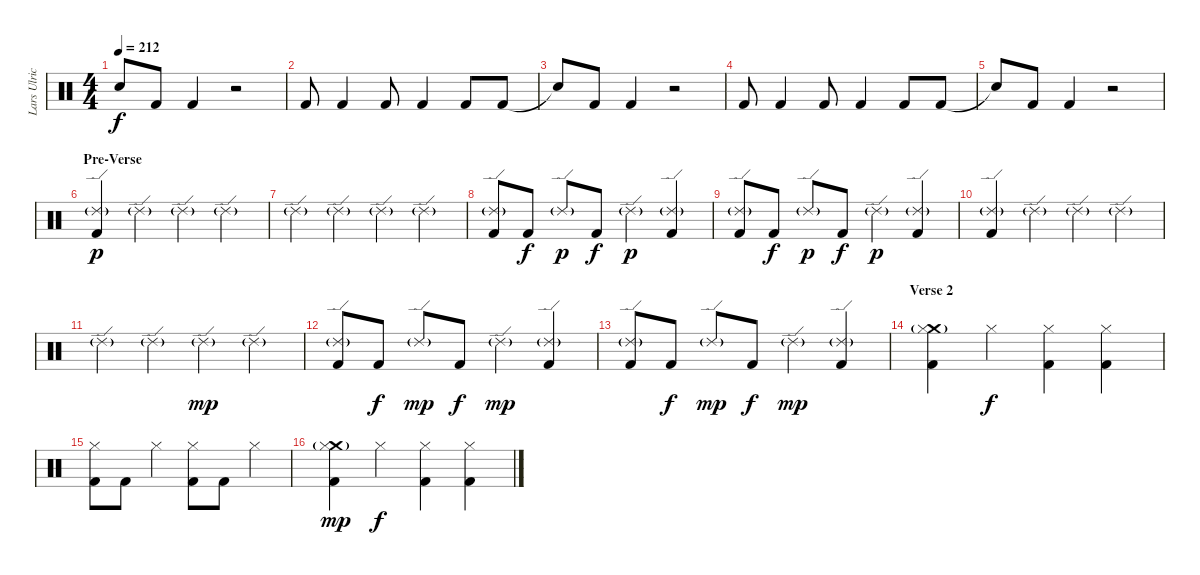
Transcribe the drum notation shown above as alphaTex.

\track ("Lars Ulrich" "Lars Ulric") {instrument percussion}
\staff {score}
\articulation defaults
\ts (4 4)
\tempo 212
\clef neutral
\ks c "Snare (hit)"{t}.8{dy f} "Kick (hit) 2".8 "Kick (hit) 2".4
r.2 |
"Kick (hit) 2".8 "Kick (hit) 2".4 "Kick (hit) 2".8 "Kick (hit) 2".4 "Kick (hit) 2".8 "Kick (hit) 2".8 |
"Snare (hit)"{t}.8 "Kick (hit) 2".8 "Kick (hit) 2".4 r.2 |
"Kick (hit) 2".8 "Kick (hit) 2".4 "Kick (hit) 2".8 "Kick (hit) 2".4 "Kick (hit) 2".8 "Kick (hit) 2".8 |
"Snare (hit)"{t}.8 "Kick (hit) 2".8 "Kick (hit) 2".4 r.2 |
\section ("" "Pre-Verse")
("Ride (edge) 2"{g} "Kick (hit) 2").4{dy p} "Ride (edge) 2"{g}.4 "Ride (edge) 2"{g}.4 "Ride (edge) 2"{g}.4 |
"Ride (edge) 2"{g}.4 "Ride (edge) 2"{g}.4 "Ride (edge) 2"{g}.4 "Ride (edge) 2"{g}.4 |
("Ride (edge) 2"{g} "Kick (hit) 2").8 "Kick (hit) 2".8{dy f} "Ride (edge) 2"{g}.8{dy p} "Kick (hit) 2".8{dy f} "Ride (edge) 2"{g}.4{dy p} ("Ride (edge) 2"{g} "Kick (hit) 2").4 |
("Ride (edge) 2"{g} "Kick (hit) 2").8 "Kick (hit) 2".8{dy f} "Ride (edge) 2"{g}.8{dy p} "Kick (hit) 2".8{dy f} "Ride (edge) 2"{g}.4{dy p} ("Ride (edge) 2"{g} "Kick (hit) 2").4 |
("Ride (edge) 2"{g} "Kick (hit) 2").4 "Ride (edge) 2"{g}.4 "Ride (edge) 2"{g}.4 "Ride (edge) 2"{g}.4 |
"Ride (edge) 2"{g}.4 "Ride (edge) 2"{g}.4 "Ride (edge) 2"{g}.4{dy mp} "Ride (edge) 2"{g}.4 |
("Ride (edge) 2"{g} "Kick (hit) 2").8 "Kick (hit) 2".8{dy f} "Ride (edge) 2"{g}.8{dy mp} "Kick (hit) 2".8{dy f} "Ride (edge) 2"{g}.4{dy mp} ("Ride (edge) 2"{g} "Kick (hit) 2").4 |
("Ride (edge) 2"{g} "Kick (hit) 2").8 "Kick (hit) 2".8{dy f} "Ride (edge) 2"{g}.8{dy mp} "Kick (hit) 2".8{dy f} "Ride (edge) 2"{g}.4{dy mp} ("Ride (edge) 2"{g} "Kick (hit) 2").4 |
\section ("" "Verse 2")
("Crash medium (hit)"{g} "Hi-Hat (closed)" "Kick (hit) 2").4 "Hi-Hat (closed)".4{dy f} ("Hi-Hat (closed)" "Kick (hit) 2").4 ("Hi-Hat (closed)" "Kick (hit) 2").4 |
("Hi-Hat (closed)" "Kick (hit) 2").8 "Kick (hit) 2".8 "Hi-Hat (closed)".4 ("Hi-Hat (closed)" "Kick (hit) 2").8 "Kick (hit) 2".8 "Hi-Hat (closed)".4 |
("Crash medium (hit)"{g} "Hi-Hat (closed)" "Kick (hit) 2").4{dy mp} "Hi-Hat (closed)".4{dy f} ("Hi-Hat (closed)" "Kick (hit) 2").4 ("Hi-Hat (closed)" "Kick (hit) 2").4
